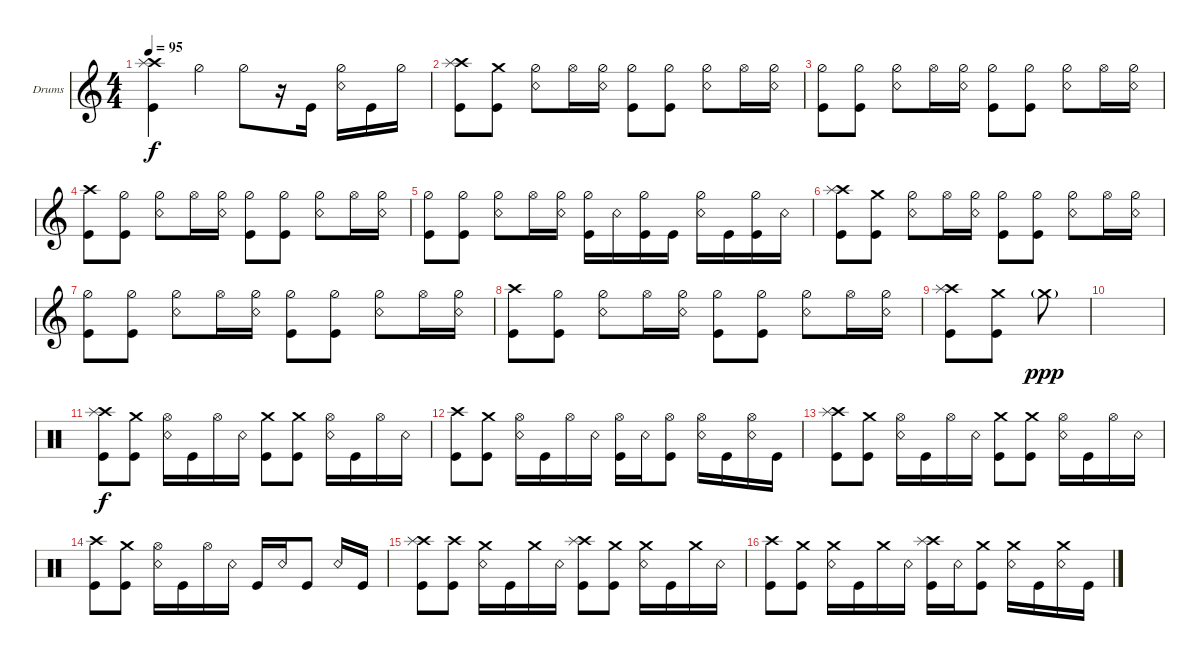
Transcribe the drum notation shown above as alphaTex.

\defaultSystemsLayout 4
\bracketExtendMode groupsimilarinstruments
\firstSystemTrackNameOrientation horizontal
\otherSystemsTrackNameOrientation horizontal
\track ("Drumkit" "Drums") {instrument percussion}
\staff {score}
\articulation defaults
\ts (4 4)
\tempo 95
\clef g2
\ks c
("Kick (hit)" "Crash high (hit)" "Splash (hit)").4{dy f} "Hi-Hat (half)".4 "Hi-Hat (half)".8 r.16 "Kick (hit)".16 ("Snare (rim shot)" "Hi-Hat (half)").16 "Kick (hit)".16 "Hi-Hat (half)".16 |
("Kick (hit)" "Crash high (hit)" "Splash (hit)").8 ("Kick (hit)" "Crash medium (hit)").8 ("Hi-Hat (half)" "Snare (rim shot)").8 "Hi-Hat (open)".16 ("Snare (rim shot)" "Hi-Hat (half)").16 ("Hi-Hat (half)" "Kick (hit)").8 ("Hi-Hat (half)" "Kick (hit)").8 ("Hi-Hat (half)" "Snare (rim shot)").8 "Hi-Hat (open)".16 ("Snare (rim shot)" "Hi-Hat (half)").16 |
("Kick (hit)" "Hi-Hat (half)").8 ("Kick (hit)" "Hi-Hat (half)").8 ("Hi-Hat (half)" "Snare (rim shot)").8 "Hi-Hat (open)".16 ("Snare (rim shot)" "Hi-Hat (half)").16 ("Hi-Hat (half)" "Kick (hit)").8 ("Hi-Hat (half)" "Kick (hit)").8 ("Hi-Hat (half)" "Snare (rim shot)").8 "Hi-Hat (open)".16 ("Snare (rim shot)" "Hi-Hat (half)").16 |
("Kick (hit)" "Crash high (hit)").8 ("Kick (hit)" "Hi-Hat (half)").8 ("Hi-Hat (half)" "Snare (rim shot)").8 "Hi-Hat (open)".16 ("Snare (rim shot)" "Hi-Hat (half)").16 ("Hi-Hat (half)" "Kick (hit)").8 ("Hi-Hat (half)" "Kick (hit)").8 ("Hi-Hat (half)" "Snare (rim shot)").8 "Hi-Hat (open)".16 ("Snare (rim shot)" "Hi-Hat (half)").16 |
("Kick (hit)" "Hi-Hat (half)").8 ("Kick (hit)" "Hi-Hat (half)").8 ("Hi-Hat (half)" "Snare (rim shot)").8 "Hi-Hat (open)".16 ("Snare (rim shot)" "Hi-Hat (half)").16 ("Hi-Hat (half)" "Kick (hit)").16 "Snare (rim shot)".16 ("Hi-Hat (half)" "Kick (hit)").16 "Kick (hit)".16 ("Hi-Hat (half)" "Snare (rim shot)").16 "Kick (hit)".16 ("Hi-Hat (half)" "Kick (hit)").16 "Snare (rim shot)".16 |
("Kick (hit)" "Crash high (hit)" "Splash (hit)").8 ("Kick (hit)" "Crash medium (hit)").8 ("Hi-Hat (half)" "Snare (rim shot)").8 "Hi-Hat (open)".16 ("Snare (rim shot)" "Hi-Hat (half)").16 ("Hi-Hat (half)" "Kick (hit)").8 ("Hi-Hat (half)" "Kick (hit)").8 ("Hi-Hat (half)" "Snare (rim shot)").8 "Hi-Hat (open)".16 ("Snare (rim shot)" "Hi-Hat (half)").16 |
("Kick (hit)" "Hi-Hat (half)").8 ("Kick (hit)" "Hi-Hat (half)").8 ("Hi-Hat (half)" "Snare (rim shot)").8 "Hi-Hat (open)".16 ("Snare (rim shot)" "Hi-Hat (half)").16 ("Hi-Hat (half)" "Kick (hit)").8 ("Hi-Hat (half)" "Kick (hit)").8 ("Hi-Hat (half)" "Snare (rim shot)").8 "Hi-Hat (open)".16 ("Snare (rim shot)" "Hi-Hat (half)").16 |
("Kick (hit)" "Crash high (hit)").8 ("Kick (hit)" "Hi-Hat (half)").8 ("Hi-Hat (half)" "Snare (rim shot)").8 "Hi-Hat (open)".16 ("Snare (rim shot)" "Hi-Hat (half)").16 ("Hi-Hat (half)" "Kick (hit)").8 ("Hi-Hat (half)" "Kick (hit)").8 ("Hi-Hat (half)" "Snare (rim shot)").8 "Hi-Hat (open)".16 ("Snare (rim shot)" "Hi-Hat (half)").16 |
("Kick (hit)" "Crash high (hit)" "Splash (hit)").8 ("Kick (hit)" "Crash medium (hit)").8 "Crash medium (hit)"{g}.8{dy ppp} |
|
\clef neutral
("Kick (hit)" "Crash high (hit)" "Splash (hit)").8{dy f} ("Kick (hit)" "Crash medium (hit)").8 ("Snare (rim shot)" "Hi-Hat (open)").16 "Kick (hit)".16 "Hi-Hat (open)".16 "Snare (rim shot)".16 ("Kick (hit)" "Crash medium (hit)").8 ("Kick (hit)" "Crash medium (hit)").8 ("Snare (rim shot)" "Hi-Hat (open)").16 "Kick (hit)".16 "Hi-Hat (open)".16 "Snare (rim shot)".16 |
("Kick (hit)" "Crash high (hit)").8 ("Kick (hit)" "Crash medium (hit)").8 ("Snare (rim shot)" "Hi-Hat (open)").16 "Kick (hit)".16 "Hi-Hat (open)".16 "Snare (rim shot)".16 ("Kick (hit)" "Hi-Hat (open)").16 "Snare (rim shot)".16 ("Kick (hit)" "Hi-Hat (open)").8 ("Hi-Hat (open)" "Snare (rim shot)").16 "Kick (hit)".16 ("Hi-Hat (open)" "Snare (rim shot)").16 "Kick (hit)".16 |
("Kick (hit)" "Crash high (hit)" "Splash (hit)").8 ("Kick (hit)" "Crash medium (hit)").8 ("Snare (rim shot)" "Hi-Hat (open)").16 "Kick (hit)".16 "Hi-Hat (open)".16 "Snare (rim shot)".16 ("Kick (hit)" "Crash medium (hit)").8 ("Kick (hit)" "Crash medium (hit)").8 ("Snare (rim shot)" "Hi-Hat (open)").16 "Kick (hit)".16 "Hi-Hat (open)".16 "Snare (rim shot)".16 |
("Kick (hit)" "Crash high (hit)").8 ("Kick (hit)" "Crash medium (hit)").8 ("Snare (rim shot)" "Hi-Hat (open)").16 "Kick (hit)".16 "Hi-Hat (open)".16 "Snare (rim shot)".16 "Kick (hit)".16 "Snare (rim shot)".16 "Kick (hit)".8 "Snare (rim shot)".16 "Kick (hit)".16 |
("Kick (hit)" "Crash high (hit)" "Splash (hit)").8 ("Kick (hit)" "Crash high (hit)").8 ("Snare (rim shot)" "Crash medium (hit)").16 "Kick (hit)".16 "Crash medium (hit)".16 "Snare (rim shot)".16 ("Kick (hit)" "Crash high (hit)" "Splash (hit)").8 ("Kick (hit)" "Crash medium (hit)").8 ("Snare (rim shot)" "Crash medium (hit)").16 "Kick (hit)".16 "Crash medium (hit)".16 "Snare (rim shot)".16 |
("Kick (hit)" "Crash high (hit)").8 ("Kick (hit)" "Crash medium (hit)").8 ("Snare (rim shot)" "Crash medium (hit)").16 "Kick (hit)".16 "Crash medium (hit)".16 "Snare (rim shot)".16 ("Kick (hit)" "Crash high (hit)" "Splash (hit)").16 "Snare (rim shot)".16 ("Kick (hit)" "Crash medium (hit)").8 ("Snare (rim shot)" "Crash medium (hit)").16 "Kick (hit)".16 ("Snare (rim shot)" "Crash medium (hit)").16 "Kick (hit)".16
